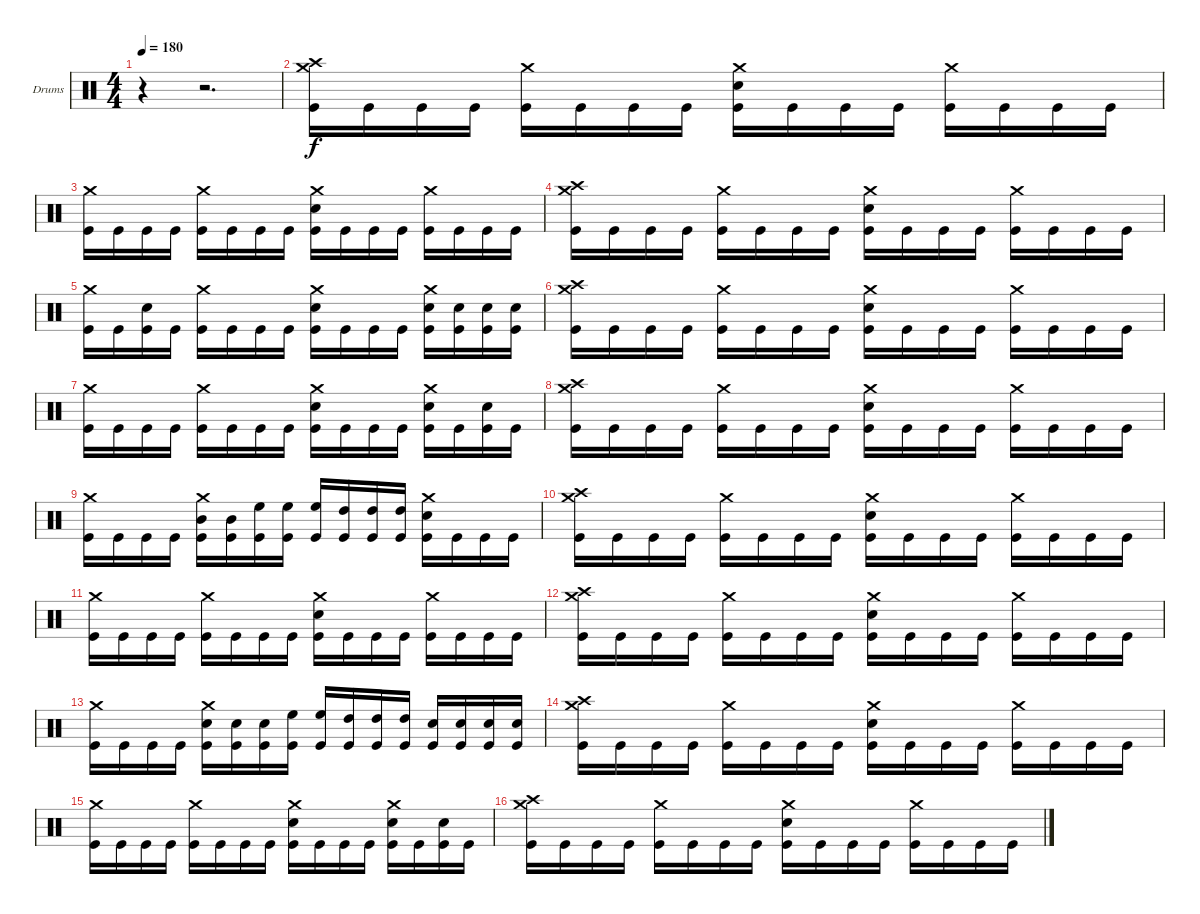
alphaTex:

\bracketExtendMode groupsimilarinstruments
\firstSystemTrackNameOrientation horizontal
\otherSystemsTrackNameOrientation horizontal
\track ("Drumkit" "Drums") {instrument percussion}
\staff {score}
\articulation defaults
\ts (4 4)
\beaming (8 2 2 2 2)
\tempo 180
\clef neutral
\ks c
r.4{dy f} r.2{d} |
("Crash high (hit)" "Crash medium (hit)" "Kick (hit)").16 "Kick (hit)".16 "Kick (hit)".16 "Kick (hit)".16 ("Crash medium (hit)" "Kick (hit)").16 "Kick (hit)".16 "Kick (hit)".16 "Kick (hit)".16 ("Crash medium (hit)" "Snare (hit) 2" "Kick (hit)").16 "Kick (hit)".16 "Kick (hit)".16 "Kick (hit)".16 ("Crash medium (hit)" "Kick (hit)").16 "Kick (hit)".16 "Kick (hit)".16 "Kick (hit)".16 |
("Crash medium (hit)" "Kick (hit)").16 "Kick (hit)".16 "Kick (hit)".16 "Kick (hit)".16 ("Crash medium (hit)" "Kick (hit)").16 "Kick (hit)".16 "Kick (hit)".16 "Kick (hit)".16 ("Crash medium (hit)" "Snare (hit) 2" "Kick (hit)").16 "Kick (hit)".16 "Kick (hit)".16 "Kick (hit)".16 ("Crash medium (hit)" "Kick (hit)").16 "Kick (hit)".16 "Kick (hit)".16 "Kick (hit)".16 |
("Crash high (hit)" "Crash medium (hit)" "Kick (hit)").16 "Kick (hit)".16 "Kick (hit)".16 "Kick (hit)".16 ("Crash medium (hit)" "Kick (hit)").16 "Kick (hit)".16 "Kick (hit)".16 "Kick (hit)".16 ("Crash medium (hit)" "Snare (hit) 2" "Kick (hit)").16 "Kick (hit)".16 "Kick (hit)".16 "Kick (hit)".16 ("Crash medium (hit)" "Kick (hit)").16 "Kick (hit)".16 "Kick (hit)".16 "Kick (hit)".16 |
("Crash medium (hit)" "Kick (hit)").16 "Kick (hit)".16 ("Snare (hit) 2" "Kick (hit)").16 "Kick (hit)".16 ("Crash medium (hit)" "Kick (hit)").16 "Kick (hit)".16 "Kick (hit)".16 "Kick (hit)".16 ("Crash medium (hit)" "Snare (hit) 2" "Kick (hit)").16 "Kick (hit)".16 "Kick (hit)".16 "Kick (hit)".16 ("Crash medium (hit)" "Snare (hit) 2" "Kick (hit)").16 ("Snare (hit) 2" "Kick (hit)").16 ("Snare (hit) 2" "Kick (hit)").16 ("Snare (hit) 2" "Kick (hit)").16 |
("Crash high (hit)" "Crash medium (hit)" "Kick (hit)").16 "Kick (hit)".16 "Kick (hit)".16 "Kick (hit)".16 ("Crash medium (hit)" "Kick (hit)").16 "Kick (hit)".16 "Kick (hit)".16 "Kick (hit)".16 ("Crash medium (hit)" "Snare (hit) 2" "Kick (hit)").16 "Kick (hit)".16 "Kick (hit)".16 "Kick (hit)".16 ("Crash medium (hit)" "Kick (hit)").16 "Kick (hit)".16 "Kick (hit)".16 "Kick (hit)".16 |
("Crash medium (hit)" "Kick (hit)").16 "Kick (hit)".16 "Kick (hit)".16 "Kick (hit)".16 ("Crash medium (hit)" "Kick (hit)").16 "Kick (hit)".16 "Kick (hit)".16 "Kick (hit)".16 ("Crash medium (hit)" "Snare (hit) 2" "Kick (hit)").16 "Kick (hit)".16 "Kick (hit)".16 "Kick (hit)".16 ("Crash medium (hit)" "Snare (hit) 2" "Kick (hit)").16 "Kick (hit)".16 ("Snare (hit) 2" "Kick (hit)").16 "Kick (hit)".16 |
("Crash high (hit)" "Crash medium (hit)" "Kick (hit)").16 "Kick (hit)".16 "Kick (hit)".16 "Kick (hit)".16 ("Crash medium (hit)" "Kick (hit)").16 "Kick (hit)".16 "Kick (hit)".16 "Kick (hit)".16 ("Crash medium (hit)" "Snare (hit) 2" "Kick (hit)").16 "Kick (hit)".16 "Kick (hit)".16 "Kick (hit)".16 ("Crash medium (hit)" "Kick (hit)").16 "Kick (hit)".16 "Kick (hit)".16 "Kick (hit)".16 |
("Crash medium (hit)" "Kick (hit)").16 "Kick (hit)".16 "Kick (hit)".16 "Kick (hit)".16 ("Crash medium (hit)" "Mid Tom (hit)" "Kick (hit)").16 ("Mid Tom (hit)" "Kick (hit)").16 ("High Floor Tom (hit)" "Kick (hit)").16 ("High Floor Tom (hit)" "Kick (hit)").16 ("High Floor Tom (hit)" "Kick (hit)").16 ("High Tom (hit)" "Kick (hit)").16 ("High Tom (hit)" "Kick (hit)").16 ("High Tom (hit)" "Kick (hit)").16 ("Crash medium (hit)" "Snare (hit) 2" "Kick (hit)").16 "Kick (hit)".16 "Kick (hit)".16 "Kick (hit)".16 |
("Crash high (hit)" "Crash medium (hit)" "Kick (hit)").16 "Kick (hit)".16 "Kick (hit)".16 "Kick (hit)".16 ("Crash medium (hit)" "Kick (hit)").16 "Kick (hit)".16 "Kick (hit)".16 "Kick (hit)".16 ("Crash medium (hit)" "Snare (hit) 2" "Kick (hit)").16 "Kick (hit)".16 "Kick (hit)".16 "Kick (hit)".16 ("Crash medium (hit)" "Kick (hit)").16 "Kick (hit)".16 "Kick (hit)".16 "Kick (hit)".16 |
("Crash medium (hit)" "Kick (hit)").16 "Kick (hit)".16 "Kick (hit)".16 "Kick (hit)".16 ("Crash medium (hit)" "Kick (hit)").16 "Kick (hit)".16 "Kick (hit)".16 "Kick (hit)".16 ("Crash medium (hit)" "Snare (hit) 2" "Kick (hit)").16 "Kick (hit)".16 "Kick (hit)".16 "Kick (hit)".16 ("Crash medium (hit)" "Kick (hit)").16 "Kick (hit)".16 "Kick (hit)".16 "Kick (hit)".16 |
("Crash high (hit)" "Crash medium (hit)" "Kick (hit)").16 "Kick (hit)".16 "Kick (hit)".16 "Kick (hit)".16 ("Crash medium (hit)" "Kick (hit)").16 "Kick (hit)".16 "Kick (hit)".16 "Kick (hit)".16 ("Crash medium (hit)" "Snare (hit) 2" "Kick (hit)").16 "Kick (hit)".16 "Kick (hit)".16 "Kick (hit)".16 ("Crash medium (hit)" "Kick (hit)").16 "Kick (hit)".16 "Kick (hit)".16 "Kick (hit)".16 |
("Crash medium (hit)" "Kick (hit)").16 "Kick (hit)".16 "Kick (hit)".16 "Kick (hit)".16 ("Crash medium (hit)" "Snare (hit) 2" "Kick (hit)").16 ("Snare (hit) 2" "Kick (hit)").16 ("Snare (hit) 2" "Kick (hit)").16 ("High Floor Tom (hit)" "Kick (hit)").16 ("High Floor Tom (hit)" "Kick (hit)").16 ("High Tom (hit)" "Kick (hit)").16 ("High Tom (hit)" "Kick (hit)").16 ("High Tom (hit)" "Kick (hit)").16 ("Snare (hit) 2" "Kick (hit)").16 ("Snare (hit) 2" "Kick (hit)").16 ("Snare (hit) 2" "Kick (hit)").16 ("Snare (hit) 2" "Kick (hit)").16 |
("Crash high (hit)" "Crash medium (hit)" "Kick (hit)").16 "Kick (hit)".16 "Kick (hit)".16 "Kick (hit)".16 ("Crash medium (hit)" "Kick (hit)").16 "Kick (hit)".16 "Kick (hit)".16 "Kick (hit)".16 ("Crash medium (hit)" "Snare (hit) 2" "Kick (hit)").16 "Kick (hit)".16 "Kick (hit)".16 "Kick (hit)".16 ("Crash medium (hit)" "Kick (hit)").16 "Kick (hit)".16 "Kick (hit)".16 "Kick (hit)".16 |
("Crash medium (hit)" "Kick (hit)").16 "Kick (hit)".16 "Kick (hit)".16 "Kick (hit)".16 ("Crash medium (hit)" "Kick (hit)").16 "Kick (hit)".16 "Kick (hit)".16 "Kick (hit)".16 ("Crash medium (hit)" "Snare (hit) 2" "Kick (hit)").16 "Kick (hit)".16 "Kick (hit)".16 "Kick (hit)".16 ("Crash medium (hit)" "Snare (hit) 2" "Kick (hit)").16 "Kick (hit)".16 ("Snare (hit) 2" "Kick (hit)").16 "Kick (hit)".16 |
("Crash high (hit)" "Crash medium (hit)" "Kick (hit)").16 "Kick (hit)".16 "Kick (hit)".16 "Kick (hit)".16 ("Crash medium (hit)" "Kick (hit)").16 "Kick (hit)".16 "Kick (hit)".16 "Kick (hit)".16 ("Crash medium (hit)" "Snare (hit) 2" "Kick (hit)").16 "Kick (hit)".16 "Kick (hit)".16 "Kick (hit)".16 ("Crash medium (hit)" "Kick (hit)").16 "Kick (hit)".16 "Kick (hit)".16 "Kick (hit)".16
